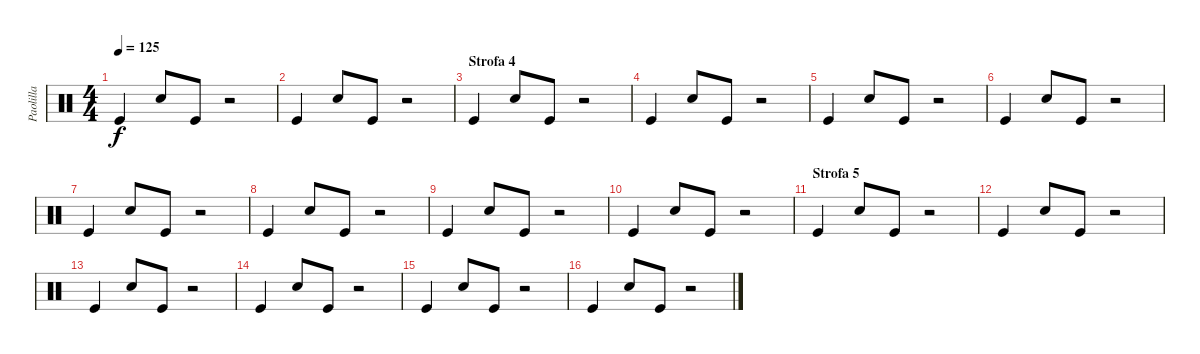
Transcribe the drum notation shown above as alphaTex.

\track ("Paolilla" "Paolilla") {instrument percussion}
\staff {score}
\articulation defaults
\ts (4 4)
\tempo 125
\clef neutral
\ks c "Kick (hit)".4{dy f} "Snare (hit) 2".8 "Kick (hit)".8
r.2 |
"Kick (hit)".4 "Snare (hit) 2".8 "Kick (hit)".8 r.2 |
\section ("" "Strofa 4")
"Kick (hit)".4 "Snare (hit) 2".8 "Kick (hit)".8 r.2 |
"Kick (hit)".4 "Snare (hit) 2".8 "Kick (hit)".8 r.2 |
"Kick (hit)".4 "Snare (hit) 2".8 "Kick (hit)".8 r.2 |
"Kick (hit)".4 "Snare (hit) 2".8 "Kick (hit)".8 r.2 |
"Kick (hit)".4 "Snare (hit) 2".8 "Kick (hit)".8 r.2 |
"Kick (hit)".4 "Snare (hit) 2".8 "Kick (hit)".8 r.2 |
"Kick (hit)".4 "Snare (hit) 2".8 "Kick (hit)".8 r.2 |
"Kick (hit)".4 "Snare (hit) 2".8 "Kick (hit)".8 r.2 |
\section ("" "Strofa 5")
"Kick (hit)".4 "Snare (hit) 2".8 "Kick (hit)".8 r.2 |
"Kick (hit)".4 "Snare (hit) 2".8 "Kick (hit)".8 r.2 |
"Kick (hit)".4 "Snare (hit) 2".8 "Kick (hit)".8 r.2 |
"Kick (hit)".4 "Snare (hit) 2".8 "Kick (hit)".8 r.2 |
"Kick (hit)".4 "Snare (hit) 2".8 "Kick (hit)".8 r.2 |
"Kick (hit)".4 "Snare (hit) 2".8 "Kick (hit)".8 r.2
